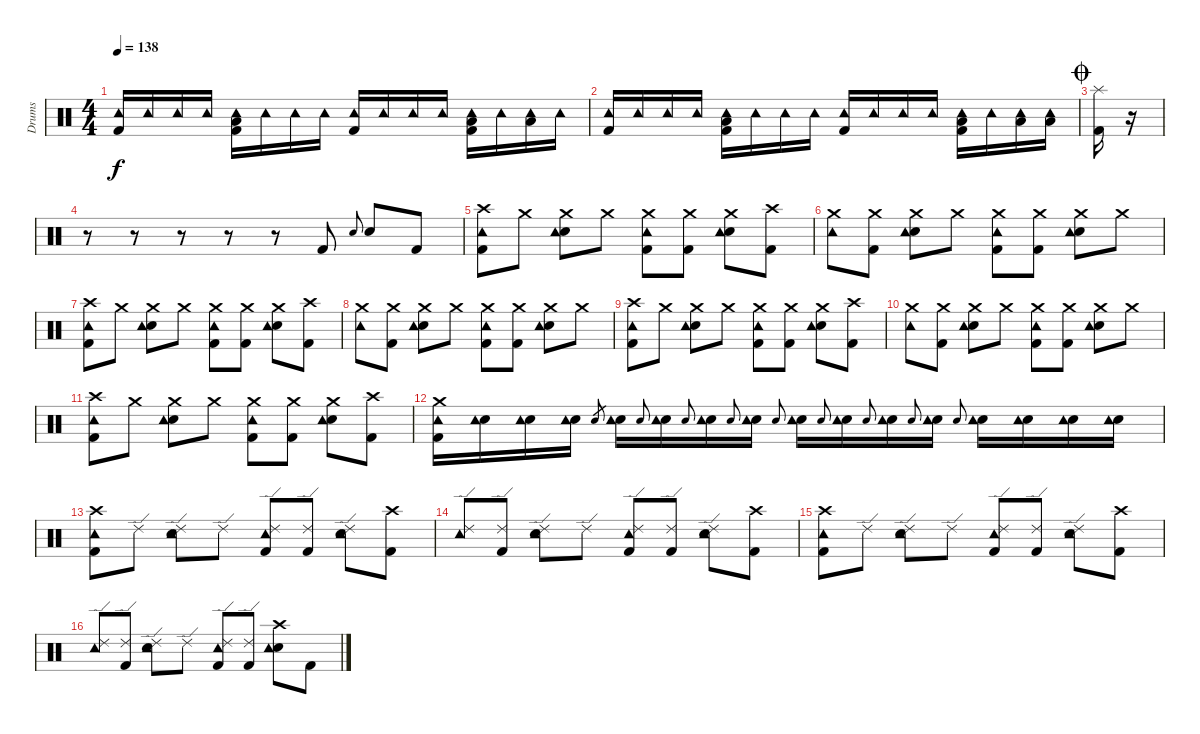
\track ("Drums" "Drums") {instrument percussion}
\staff {score}
\articulation defaults
\ts (4 4)
\tempo 138
\clef neutral
\ks c
("Tambourine (hit)" "Kick (hit) 2").16{dy f} "Tambourine (hit)".16 "Tambourine (hit)".16 "Tambourine (hit)".16 ("Tambourine (hit)" "Kick (hit) 2" "Low Tom (hit)").16 "Tambourine (hit)".16 "Tambourine (hit)".16 "Tambourine (hit)".16 ("Tambourine (hit)" "Kick (hit) 2").16 "Tambourine (hit)".16 "Tambourine (hit)".16 "Tambourine (hit)".16 ("Tambourine (hit)" "Kick (hit) 2" "Low Tom (hit)").16 "Tambourine (hit)".16 ("Tambourine (hit)" "Low Floor Tom (hit)").16 "Tambourine (hit)".16 |
("Tambourine (hit)" "Kick (hit) 2").16 "Tambourine (hit)".16 "Tambourine (hit)".16 "Tambourine (hit)".16 ("Tambourine (hit)" "Kick (hit) 2" "Low Tom (hit)").16 "Tambourine (hit)".16 "Tambourine (hit)".16 "Tambourine (hit)".16 ("Tambourine (hit)" "Kick (hit) 2").16 "Tambourine (hit)".16 "Tambourine (hit)".16 "Tambourine (hit)".16 ("Tambourine (hit)" "Kick (hit) 2" "Low Tom (hit)").16 "Tambourine (hit)".16 ("Tambourine (hit)" "Low Floor Tom (hit)").16 ("Tambourine (hit)" "Low Floor Tom (hit)").16 |
\jump coda
("Splash (hit)" "Kick (hit) 2").16 r.16 |
r.8 r.8 r.8 r.8 r.8 "Kick (hit) 2".8 "Electric Snare (hit)".8{gr onbeat} "Electric Snare (hit)".8 "Kick (hit) 2".8 |
("Crash high (hit)" "Kick (hit) 2" "Tambourine (hit)").8 "Crash medium (hit)".8 ("Crash medium (hit)" "Electric Snare (hit)" "Tambourine (hit)").8 "Crash medium (hit)".8 ("Crash medium (hit)" "Kick (hit) 2" "Tambourine (hit)").8 ("Crash medium (hit)" "Kick (hit) 2").8 ("Crash medium (hit)" "Electric Snare (hit)" "Tambourine (hit)").8 ("Crash high (hit)" "Kick (hit) 2").8 |
("Crash medium (hit)" "Tambourine (hit)").8 ("Crash medium (hit)" "Kick (hit) 2").8 ("Crash medium (hit)" "Electric Snare (hit)" "Tambourine (hit)").8 "Crash medium (hit)".8 ("Crash medium (hit)" "Kick (hit) 2" "Tambourine (hit)").8 ("Crash medium (hit)" "Kick (hit) 2").8 ("Crash medium (hit)" "Electric Snare (hit)" "Tambourine (hit)").8 "Crash medium (hit)".8 |
("Crash high (hit)" "Kick (hit) 2" "Tambourine (hit)").8 "Crash medium (hit)".8 ("Crash medium (hit)" "Electric Snare (hit)" "Tambourine (hit)").8 "Crash medium (hit)".8 ("Crash medium (hit)" "Kick (hit) 2" "Tambourine (hit)").8 ("Crash medium (hit)" "Kick (hit) 2").8 ("Crash medium (hit)" "Electric Snare (hit)" "Tambourine (hit)").8 ("Crash high (hit)" "Kick (hit) 2").8 |
("Crash medium (hit)" "Tambourine (hit)").8 ("Crash medium (hit)" "Kick (hit) 2").8 ("Crash medium (hit)" "Electric Snare (hit)" "Tambourine (hit)").8 "Crash medium (hit)".8 ("Crash medium (hit)" "Kick (hit) 2" "Tambourine (hit)").8 ("Crash medium (hit)" "Kick (hit) 2").8 ("Crash medium (hit)" "Electric Snare (hit)" "Tambourine (hit)").8 "Crash medium (hit)".8 |
("Crash high (hit)" "Kick (hit) 2" "Tambourine (hit)").8 "Crash medium (hit)".8 ("Crash medium (hit)" "Electric Snare (hit)" "Tambourine (hit)").8 "Crash medium (hit)".8 ("Crash medium (hit)" "Kick (hit) 2" "Tambourine (hit)").8 ("Crash medium (hit)" "Kick (hit) 2").8 ("Crash medium (hit)" "Electric Snare (hit)" "Tambourine (hit)").8 ("Crash high (hit)" "Kick (hit) 2").8 |
("Crash medium (hit)" "Tambourine (hit)").8 ("Crash medium (hit)" "Kick (hit) 2").8 ("Crash medium (hit)" "Electric Snare (hit)" "Tambourine (hit)").8 "Crash medium (hit)".8 ("Crash medium (hit)" "Kick (hit) 2" "Tambourine (hit)").8 ("Crash medium (hit)" "Kick (hit) 2").8 ("Crash medium (hit)" "Electric Snare (hit)" "Tambourine (hit)").8 "Crash medium (hit)".8 |
("Crash high (hit)" "Kick (hit) 2" "Tambourine (hit)").8 "Crash medium (hit)".8 ("Crash medium (hit)" "Electric Snare (hit)" "Tambourine (hit)").8 "Crash medium (hit)".8 ("Crash medium (hit)" "Kick (hit) 2" "Tambourine (hit)").8 ("Crash medium (hit)" "Kick (hit) 2").8 ("Crash medium (hit)" "Electric Snare (hit)" "Tambourine (hit)").8 ("Crash high (hit)" "Kick (hit) 2").8 |
("Crash medium (hit)" "Kick (hit) 2" "Tambourine (hit)").16 ("Electric Snare (hit)" "Tambourine (hit)").16 ("Electric Snare (hit)" "Tambourine (hit)").16 ("Electric Snare (hit)" "Tambourine (hit)").16 "Electric Snare (hit)".8{gr} ("Electric Snare (hit)" "Tambourine (hit)").16 "Electric Snare (hit)".8{gr onbeat} ("Electric Snare (hit)" "Tambourine (hit)").16 "Electric Snare (hit)".8{gr onbeat} ("Electric Snare (hit)" "Tambourine (hit)").16 "Electric Snare (hit)".8{gr onbeat} ("Electric Snare (hit)" "Tambourine (hit)").16 "Electric Snare (hit)".8{gr onbeat} ("Electric Snare (hit)" "Tambourine (hit)").16 "Electric Snare (hit)".8{gr onbeat} ("Electric Snare (hit)" "Tambourine (hit)").16 "Electric Snare (hit)".8{gr onbeat} ("Electric Snare (hit)" "Tambourine (hit)").16 "Electric Snare (hit)".8{gr onbeat} ("Electric Snare (hit)" "Tambourine (hit)").16 "Electric Snare (hit)".8{gr onbeat} ("Electric Snare (hit)" "Tambourine (hit)").16 ("Electric Snare (hit)" "Tambourine (hit)").16 ("Electric Snare (hit)" "Tambourine (hit)").16 ("Electric Snare (hit)" "Tambourine (hit)").16 |
("Crash high (hit)" "Kick (hit) 2" "Tambourine (hit)").8 "Ride (edge) 2".8 ("Ride (edge) 2" "Electric Snare (hit)" "Tambourine (hit)").8 "Ride (edge) 2".8 ("Ride (edge) 2" "Kick (hit) 2" "Tambourine (hit)").8 ("Ride (edge) 2" "Kick (hit) 2").8 ("Ride (edge) 2" "Electric Snare (hit)" "Tambourine (hit)").8 ("Crash high (hit)" "Kick (hit) 2").8 |
("Ride (edge) 2" "Tambourine (hit)").8 ("Ride (edge) 2" "Kick (hit) 2").8 ("Ride (edge) 2" "Electric Snare (hit)" "Tambourine (hit)").8 "Ride (edge) 2".8 ("Ride (edge) 2" "Kick (hit) 2" "Tambourine (hit)").8 ("Ride (edge) 2" "Kick (hit) 2").8 ("Ride (edge) 2" "Electric Snare (hit)" "Tambourine (hit)").8 ("Crash high (hit)" "Kick (hit) 2").8 |
("Crash high (hit)" "Kick (hit) 2" "Tambourine (hit)").8 "Ride (edge) 2".8 ("Ride (edge) 2" "Electric Snare (hit)" "Tambourine (hit)").8 "Ride (edge) 2".8 ("Ride (edge) 2" "Kick (hit) 2" "Tambourine (hit)").8 ("Ride (edge) 2" "Kick (hit) 2").8 ("Ride (edge) 2" "Electric Snare (hit)" "Tambourine (hit)").8 ("Crash high (hit)" "Kick (hit) 2").8 |
("Ride (edge) 2" "Tambourine (hit)").8 ("Ride (edge) 2" "Kick (hit) 2").8 ("Ride (edge) 2" "Electric Snare (hit)" "Tambourine (hit)").8 "Ride (edge) 2".8 ("Ride (edge) 2" "Kick (hit) 2" "Tambourine (hit)").8 ("Ride (edge) 2" "Kick (hit) 2").8 ("Crash high (hit)" "Electric Snare (hit)" "Tambourine (hit)").8 "Kick (hit) 2".8
